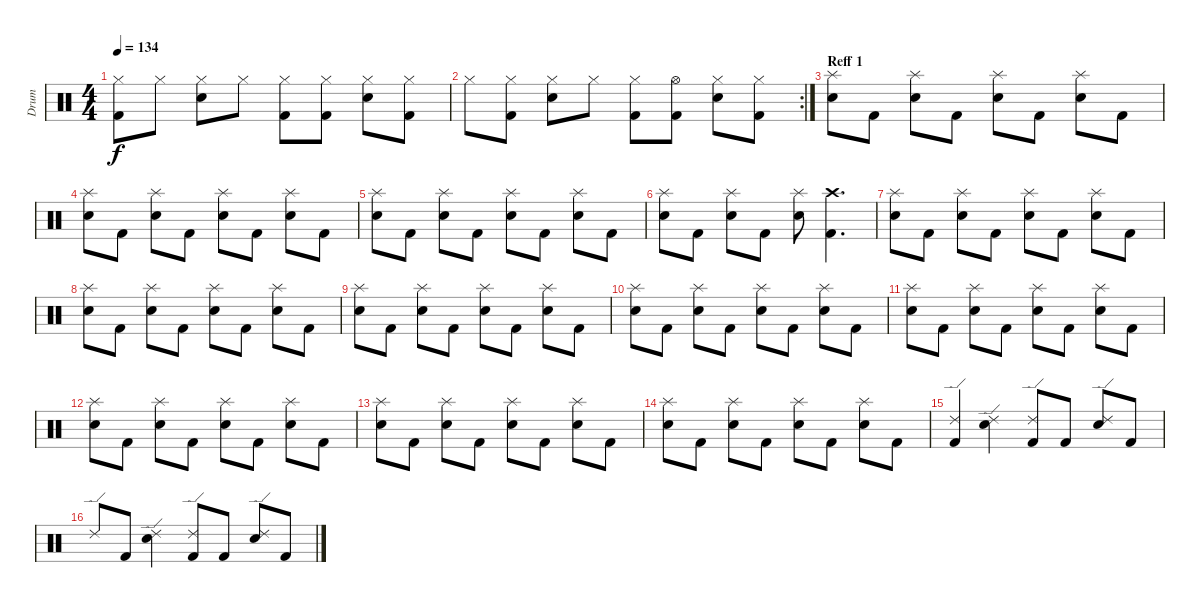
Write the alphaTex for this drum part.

\track ("Drum" "Drum") {instrument percussion}
\staff {score}
\articulation defaults
\ts (4 4)
\tempo 134
\clef neutral
\ks c
("Kick (hit) 2" "Hi-Hat (closed)").8{dy f} "Hi-Hat (closed)".8 ("Hi-Hat (closed)" "Electric Snare (hit)").8 "Hi-Hat (closed)".8 ("Hi-Hat (closed)" "Kick (hit) 2").8 ("Hi-Hat (closed)" "Kick (hit) 2").8 ("Electric Snare (hit)" "Hi-Hat (closed)").8 ("Hi-Hat (closed)" "Kick (hit) 2").8 |
\rc 2 "Hi-Hat (closed)".8
("Hi-Hat (closed)" "Kick (hit) 2").8 ("Electric Snare (hit)" "Hi-Hat (closed)").8 "Hi-Hat (closed)".8 ("Kick (hit) 2" "Hi-Hat (closed)").8 ("Hi-Hat (open)" "Kick (hit) 2").8 ("Hi-Hat (closed)" "Electric Snare (hit)").8 ("Kick (hit) 2" "Hi-Hat (closed)").8 |
\section ("" "Reff 1")
("Electric Snare (hit)" "Splash (hit)").8 "Kick (hit) 2".8 ("Electric Snare (hit)" "Splash (hit)").8 "Kick (hit) 2".8 ("Electric Snare (hit)" "Splash (hit)").8 "Kick (hit) 2".8 ("Electric Snare (hit)" "Splash (hit)").8 "Kick (hit) 2".8 |
("Electric Snare (hit)" "Splash (hit)").8 "Kick (hit) 2".8 ("Electric Snare (hit)" "Splash (hit)").8 "Kick (hit) 2".8 ("Electric Snare (hit)" "Splash (hit)").8 "Kick (hit) 2".8 ("Electric Snare (hit)" "Splash (hit)").8 "Kick (hit) 2".8 |
("Electric Snare (hit)" "Splash (hit)").8 "Kick (hit) 2".8 ("Electric Snare (hit)" "Splash (hit)").8 "Kick (hit) 2".8 ("Electric Snare (hit)" "Splash (hit)").8 "Kick (hit) 2".8 ("Electric Snare (hit)" "Splash (hit)").8 "Kick (hit) 2".8 |
("Electric Snare (hit)" "Splash (hit)").8 "Kick (hit) 2".8 ("Electric Snare (hit)" "Splash (hit)").8 "Kick (hit) 2".8 ("Electric Snare (hit)" "Splash (hit)").8 ("Kick (hit) 2" "Crash high (hit)").4{d} |
("Electric Snare (hit)" "Splash (hit)").8 "Kick (hit) 2".8 ("Electric Snare (hit)" "Splash (hit)").8 "Kick (hit) 2".8 ("Electric Snare (hit)" "Splash (hit)").8 "Kick (hit) 2".8 ("Electric Snare (hit)" "Splash (hit)").8 "Kick (hit) 2".8 |
("Electric Snare (hit)" "Splash (hit)").8 "Kick (hit) 2".8 ("Electric Snare (hit)" "Splash (hit)").8 "Kick (hit) 2".8 ("Electric Snare (hit)" "Splash (hit)").8 "Kick (hit) 2".8 ("Electric Snare (hit)" "Splash (hit)").8 "Kick (hit) 2".8 |
("Electric Snare (hit)" "Splash (hit)").8 "Kick (hit) 2".8 ("Electric Snare (hit)" "Splash (hit)").8 "Kick (hit) 2".8 ("Electric Snare (hit)" "Splash (hit)").8 "Kick (hit) 2".8 ("Electric Snare (hit)" "Splash (hit)").8 "Kick (hit) 2".8 |
("Electric Snare (hit)" "Splash (hit)").8 "Kick (hit) 2".8 ("Electric Snare (hit)" "Splash (hit)").8 "Kick (hit) 2".8 ("Electric Snare (hit)" "Splash (hit)").8 "Kick (hit) 2".8 ("Electric Snare (hit)" "Splash (hit)").8 "Kick (hit) 2".8 |
("Electric Snare (hit)" "Splash (hit)").8 "Kick (hit) 2".8 ("Electric Snare (hit)" "Splash (hit)").8 "Kick (hit) 2".8 ("Electric Snare (hit)" "Splash (hit)").8 "Kick (hit) 2".8 ("Electric Snare (hit)" "Splash (hit)").8 "Kick (hit) 2".8 |
("Electric Snare (hit)" "Splash (hit)").8 "Kick (hit) 2".8 ("Electric Snare (hit)" "Splash (hit)").8 "Kick (hit) 2".8 ("Electric Snare (hit)" "Splash (hit)").8 "Kick (hit) 2".8 ("Electric Snare (hit)" "Splash (hit)").8 "Kick (hit) 2".8 |
("Electric Snare (hit)" "Splash (hit)").8 "Kick (hit) 2".8 ("Electric Snare (hit)" "Splash (hit)").8 "Kick (hit) 2".8 ("Electric Snare (hit)" "Splash (hit)").8 "Kick (hit) 2".8 ("Electric Snare (hit)" "Splash (hit)").8 "Kick (hit) 2".8 |
("Electric Snare (hit)" "Splash (hit)").8 "Kick (hit) 2".8 ("Electric Snare (hit)" "Splash (hit)").8 "Kick (hit) 2".8 ("Electric Snare (hit)" "Splash (hit)").8 "Kick (hit) 2".8 ("Electric Snare (hit)" "Splash (hit)").8 "Kick (hit) 2".8 |
("Kick (hit) 2" "Ride (edge) 2").4 ("Electric Snare (hit)" "Ride (edge) 2").4 ("Ride (edge) 2" "Kick (hit) 2").8 "Kick (hit) 2".8 ("Electric Snare (hit)" "Ride (edge) 2").8 "Kick (hit) 2".8 |
"Ride (edge) 2".8 "Kick (hit) 2".8 ("Electric Snare (hit)" "Ride (edge) 2").4 ("Kick (hit) 2" "Ride (edge) 2").8 "Kick (hit) 2".8 ("Ride (edge) 2" "Electric Snare (hit)").8 "Kick (hit) 2".8
